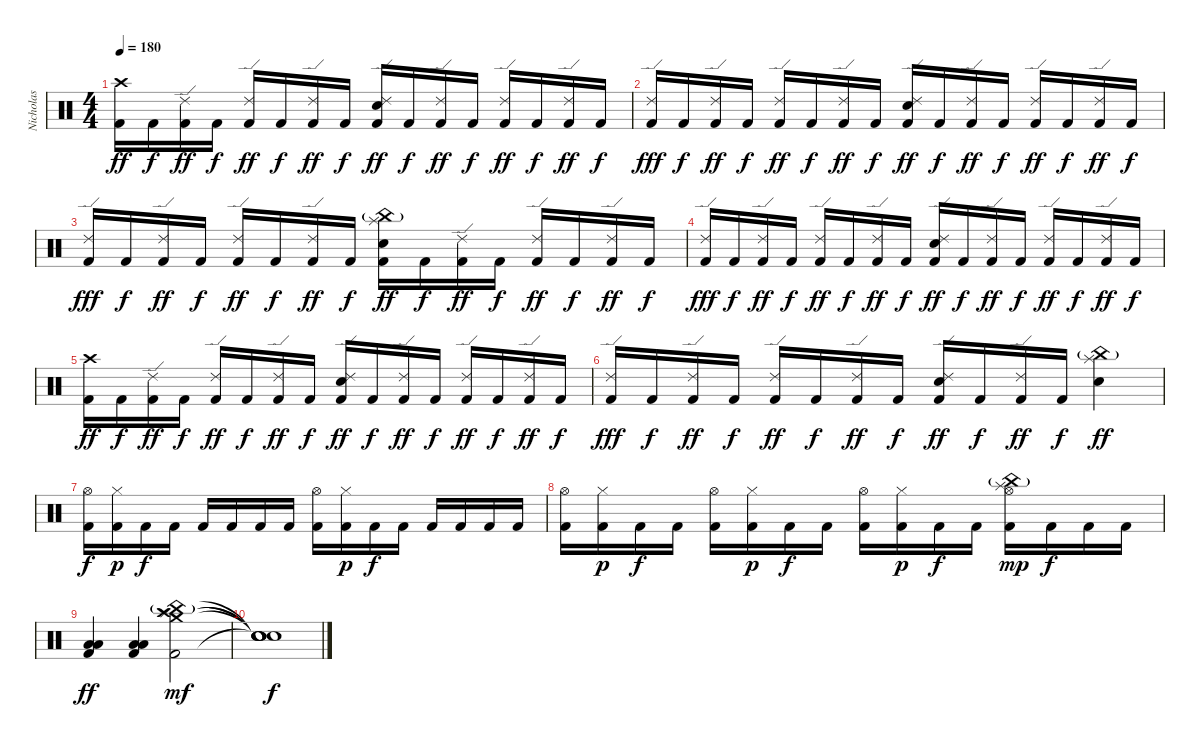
\track ("Nicholas" "Nicholas") {instrument percussion}
\staff {score}
\articulation defaults
\ts (4 4)
\tempo 180
\clef neutral
\ks c
("Kick (hit) 2" "Crash high (hit)").16{dy ff} "Kick (hit) 2".16{dy f} ("Kick (hit) 2" "Ride (edge) 2").16{dy ff} "Kick (hit) 2".16{dy f} ("Kick (hit) 2" "Ride (edge) 2").16{dy ff} "Kick (hit) 2".16{dy f} ("Kick (hit) 2" "Ride (edge) 2").16{dy ff} "Kick (hit) 2".16{dy f} ("Kick (hit) 2" "Electric Snare (hit)" "Ride (edge) 2").16{dy ff} "Kick (hit) 2".16{dy f} ("Kick (hit) 2" "Ride (edge) 2").16{dy ff} "Kick (hit) 2".16{dy f} ("Kick (hit) 2" "Ride (edge) 2").16{dy ff} "Kick (hit) 2".16{dy f} ("Kick (hit) 2" "Ride (edge) 2").16{dy ff} "Kick (hit) 2".16{dy f} |
("Kick (hit) 2" "Ride (edge) 2").16{dy fff} "Kick (hit) 2".16{dy f} ("Kick (hit) 2" "Ride (edge) 2").16{dy ff} "Kick (hit) 2".16{dy f} ("Kick (hit) 2" "Ride (edge) 2").16{dy ff} "Kick (hit) 2".16{dy f} ("Kick (hit) 2" "Ride (edge) 2").16{dy ff} "Kick (hit) 2".16{dy f} ("Kick (hit) 2" "Electric Snare (hit)" "Ride (edge) 2").16{dy ff} "Kick (hit) 2".16{dy f} ("Kick (hit) 2" "Ride (edge) 2").16{dy ff} "Kick (hit) 2".16{dy f} ("Kick (hit) 2" "Ride (edge) 2").16{dy ff} "Kick (hit) 2".16{dy f} ("Kick (hit) 2" "Ride (edge) 2").16{dy ff} "Kick (hit) 2".16{dy f} |
("Kick (hit) 2" "Ride (edge) 2").16{dy fff} "Kick (hit) 2".16{dy f} ("Kick (hit) 2" "Ride (edge) 2").16{dy ff} "Kick (hit) 2".16{dy f} ("Kick (hit) 2" "Ride (edge) 2").16{dy ff} "Kick (hit) 2".16{dy f} ("Kick (hit) 2" "Ride (edge) 2").16{dy ff} "Kick (hit) 2".16{dy f} ("Kick (hit) 2" "Electric Snare (hit)" "Splash (hit)" "China (hit)"{g}).16{dy ff} "Kick (hit) 2".16{dy f} ("Kick (hit) 2" "Ride (edge) 2").16{dy ff} "Kick (hit) 2".16{dy f} ("Kick (hit) 2" "Ride (edge) 2").16{dy ff} "Kick (hit) 2".16{dy f} ("Kick (hit) 2" "Ride (edge) 2").16{dy ff} "Kick (hit) 2".16{dy f} |
("Kick (hit) 2" "Ride (edge) 2").16{dy fff} "Kick (hit) 2".16{dy f} ("Kick (hit) 2" "Ride (edge) 2").16{dy ff} "Kick (hit) 2".16{dy f} ("Kick (hit) 2" "Ride (edge) 2").16{dy ff} "Kick (hit) 2".16{dy f} ("Kick (hit) 2" "Ride (edge) 2").16{dy ff} "Kick (hit) 2".16{dy f} ("Kick (hit) 2" "Electric Snare (hit)" "Ride (edge) 2").16{dy ff} "Kick (hit) 2".16{dy f} ("Kick (hit) 2" "Ride (edge) 2").16{dy ff} "Kick (hit) 2".16{dy f} ("Kick (hit) 2" "Ride (edge) 2").16{dy ff} "Kick (hit) 2".16{dy f} ("Kick (hit) 2" "Ride (edge) 2").16{dy ff} "Kick (hit) 2".16{dy f} |
("Kick (hit) 2" "Crash high (hit)").16{dy ff} "Kick (hit) 2".16{dy f} ("Kick (hit) 2" "Ride (edge) 2").16{dy ff} "Kick (hit) 2".16{dy f} ("Kick (hit) 2" "Ride (edge) 2").16{dy ff} "Kick (hit) 2".16{dy f} ("Kick (hit) 2" "Ride (edge) 2").16{dy ff} "Kick (hit) 2".16{dy f} ("Kick (hit) 2" "Electric Snare (hit)" "Ride (edge) 2").16{dy ff} "Kick (hit) 2".16{dy f} ("Kick (hit) 2" "Ride (edge) 2").16{dy ff} "Kick (hit) 2".16{dy f} ("Kick (hit) 2" "Ride (edge) 2").16{dy ff} "Kick (hit) 2".16{dy f} ("Kick (hit) 2" "Ride (edge) 2").16{dy ff} "Kick (hit) 2".16{dy f} |
("Kick (hit) 2" "Ride (edge) 2").16{dy fff} "Kick (hit) 2".16{dy f} ("Kick (hit) 2" "Ride (edge) 2").16{dy ff} "Kick (hit) 2".16{dy f} ("Kick (hit) 2" "Ride (edge) 2").16{dy ff} "Kick (hit) 2".16{dy f} ("Kick (hit) 2" "Ride (edge) 2").16{dy ff} "Kick (hit) 2".16{dy f} ("Kick (hit) 2" "Electric Snare (hit)" "Ride (edge) 2").16{dy ff} "Kick (hit) 2".16{dy f} ("Kick (hit) 2" "Ride (edge) 2").16{dy ff} "Kick (hit) 2".16{dy f} ("Electric Snare (hit)" "Splash (hit)" "China (hit)"{g}).4{dy ff} |
("Kick (hit) 2" "Hi-Hat (open)").16{dy f} ("Kick (hit) 2" "Hi-Hat (closed)").16{dy p} "Kick (hit) 2".16{dy f} "Kick (hit) 2".16 "Kick (hit) 2".16 "Kick (hit) 2".16 "Kick (hit) 2".16 "Kick (hit) 2".16 ("Kick (hit) 2" "Hi-Hat (open)").16 ("Kick (hit) 2" "Hi-Hat (closed)").16{dy p} "Kick (hit) 2".16{dy f} "Kick (hit) 2".16 "Kick (hit) 2".16 "Kick (hit) 2".16 "Kick (hit) 2".16 "Kick (hit) 2".16 |
("Kick (hit) 2" "Hi-Hat (open)").16 ("Kick (hit) 2" "Hi-Hat (closed)").16{dy p} "Kick (hit) 2".16{dy f} "Kick (hit) 2".16 ("Kick (hit) 2" "Hi-Hat (open)").16 ("Kick (hit) 2" "Hi-Hat (closed)").16{dy p} "Kick (hit) 2".16{dy f} "Kick (hit) 2".16 ("Kick (hit) 2" "Hi-Hat (open)").16 ("Kick (hit) 2" "Hi-Hat (closed)").16{dy p} "Kick (hit) 2".16{dy f} "Kick (hit) 2".16 ("Kick (hit) 2" "Hi-Hat (open)" "Splash (hit)" "China (hit)"{g}).16{dy mp} "Kick (hit) 2".16{dy f} "Kick (hit) 2".16 "Kick (hit) 2".16 |
("Kick (hit) 2" "Low Tom (hit)" "Low Tom (hit)").4{dy ff} ("Kick (hit) 2" "Low Tom (hit)" "Low Tom (hit)").4 ("Kick (hit) 2" "Crash medium (hit)" "Crash high (hit)" "Splash (hit)" "China (hit)"{g}).2{dy mf} |
("Snare (hit)"{t} "Snare (hit)"{t} "Snare (hit)"{t} "Snare (hit)"{t} "Snare (hit)"{t}).1{dy f}
